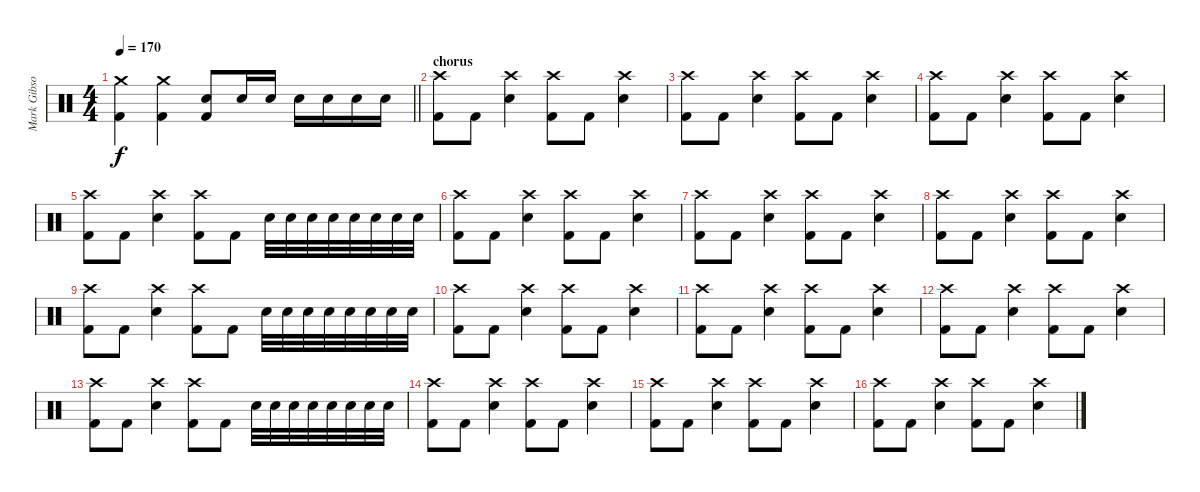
\track ("Mark Gibson" "Mark Gibso") {instrument percussion}
\staff {score}
\articulation defaults
\ts (4 4)
\tempo 170
\clef neutral
\barLineRight lightlight
\ks c
("Crash medium (hit)" "Kick (hit) 2").4{dy f} ("Crash medium (hit)" "Kick (hit) 2").4 ("Electric Snare (hit)" "Kick (hit) 2").8 "Electric Snare (hit)".16 "Electric Snare (hit)".16 "Electric Snare (hit)".16 "Electric Snare (hit)".16 "Electric Snare (hit)".16 "Electric Snare (hit)".16 |
\section ("" "chorus")
("Crash high (hit)" "Kick (hit) 2").8 "Kick (hit) 2".8 ("Crash high (hit)" "Electric Snare (hit)").4 ("Crash high (hit)" "Kick (hit) 2").8 "Kick (hit) 2".8 ("Crash high (hit)" "Electric Snare (hit)").4 |
("Crash high (hit)" "Kick (hit) 2").8 "Kick (hit) 2".8 ("Crash high (hit)" "Electric Snare (hit)").4 ("Crash high (hit)" "Kick (hit) 2").8 "Kick (hit) 2".8 ("Crash high (hit)" "Electric Snare (hit)").4 |
("Crash high (hit)" "Kick (hit) 2").8 "Kick (hit) 2".8 ("Crash high (hit)" "Electric Snare (hit)").4 ("Crash high (hit)" "Kick (hit) 2").8 "Kick (hit) 2".8 ("Crash high (hit)" "Electric Snare (hit)").4 |
("Crash high (hit)" "Kick (hit) 2").8 "Kick (hit) 2".8 ("Crash high (hit)" "Electric Snare (hit)").4 ("Crash high (hit)" "Kick (hit) 2").8 "Kick (hit) 2".8 "Electric Snare (hit)".32 "Electric Snare (hit)".32 "Electric Snare (hit)".32 "Electric Snare (hit)".32 "Electric Snare (hit)".32 "Electric Snare (hit)".32 "Electric Snare (hit)".32 "Electric Snare (hit)".32 |
("Crash high (hit)" "Kick (hit) 2").8 "Kick (hit) 2".8 ("Crash high (hit)" "Electric Snare (hit)").4 ("Crash high (hit)" "Kick (hit) 2").8 "Kick (hit) 2".8 ("Crash high (hit)" "Electric Snare (hit)").4 |
("Crash high (hit)" "Kick (hit) 2").8 "Kick (hit) 2".8 ("Crash high (hit)" "Electric Snare (hit)").4 ("Crash high (hit)" "Kick (hit) 2").8 "Kick (hit) 2".8 ("Crash high (hit)" "Electric Snare (hit)").4 |
("Crash high (hit)" "Kick (hit) 2").8 "Kick (hit) 2".8 ("Crash high (hit)" "Electric Snare (hit)").4 ("Crash high (hit)" "Kick (hit) 2").8 "Kick (hit) 2".8 ("Crash high (hit)" "Electric Snare (hit)").4 |
("Crash high (hit)" "Kick (hit) 2").8 "Kick (hit) 2".8 ("Crash high (hit)" "Electric Snare (hit)").4 ("Crash high (hit)" "Kick (hit) 2").8 "Kick (hit) 2".8 "Electric Snare (hit)".32 "Electric Snare (hit)".32 "Electric Snare (hit)".32 "Electric Snare (hit)".32 "Electric Snare (hit)".32 "Electric Snare (hit)".32 "Electric Snare (hit)".32 "Electric Snare (hit)".32 |
("Crash high (hit)" "Kick (hit) 2").8 "Kick (hit) 2".8 ("Crash high (hit)" "Electric Snare (hit)").4 ("Crash high (hit)" "Kick (hit) 2").8 "Kick (hit) 2".8 ("Crash high (hit)" "Electric Snare (hit)").4 |
("Crash high (hit)" "Kick (hit) 2").8 "Kick (hit) 2".8 ("Crash high (hit)" "Electric Snare (hit)").4 ("Crash high (hit)" "Kick (hit) 2").8 "Kick (hit) 2".8 ("Crash high (hit)" "Electric Snare (hit)").4 |
("Crash high (hit)" "Kick (hit) 2").8 "Kick (hit) 2".8 ("Crash high (hit)" "Electric Snare (hit)").4 ("Crash high (hit)" "Kick (hit) 2").8 "Kick (hit) 2".8 ("Crash high (hit)" "Electric Snare (hit)").4 |
("Crash high (hit)" "Kick (hit) 2").8 "Kick (hit) 2".8 ("Crash high (hit)" "Electric Snare (hit)").4 ("Crash high (hit)" "Kick (hit) 2").8 "Kick (hit) 2".8 "Electric Snare (hit)".32 "Electric Snare (hit)".32 "Electric Snare (hit)".32 "Electric Snare (hit)".32 "Electric Snare (hit)".32 "Electric Snare (hit)".32 "Electric Snare (hit)".32 "Electric Snare (hit)".32 |
("Crash high (hit)" "Kick (hit) 2").8 "Kick (hit) 2".8 ("Crash high (hit)" "Electric Snare (hit)").4 ("Crash high (hit)" "Kick (hit) 2").8 "Kick (hit) 2".8 ("Crash high (hit)" "Electric Snare (hit)").4 |
("Crash high (hit)" "Kick (hit) 2").8 "Kick (hit) 2".8 ("Crash high (hit)" "Electric Snare (hit)").4 ("Crash high (hit)" "Kick (hit) 2").8 "Kick (hit) 2".8 ("Crash high (hit)" "Electric Snare (hit)").4 |
("Crash high (hit)" "Kick (hit) 2").8 "Kick (hit) 2".8 ("Crash high (hit)" "Electric Snare (hit)").4 ("Crash high (hit)" "Kick (hit) 2").8 "Kick (hit) 2".8 ("Crash high (hit)" "Electric Snare (hit)").4
